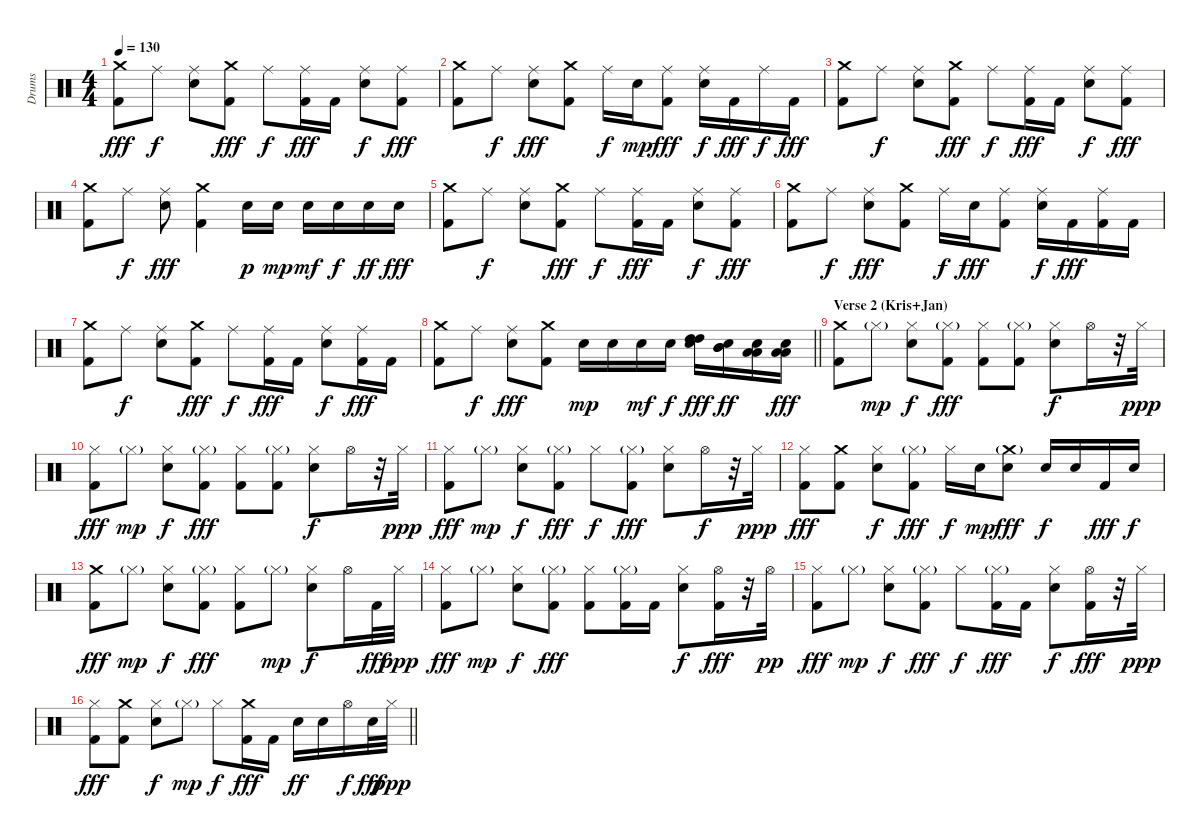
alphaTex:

\track ("Drums" "Drums") {instrument percussion}
\staff {score}
\articulation defaults
\ts (4 4)
\tempo 130
\clef neutral
\ks c
("Crash medium (hit)" "Kick (hit) 2").8{dy fff} "Ride (middle)".8{dy f} ("Ride (middle)" "Snare (hit) 2").8 ("Crash medium (hit)" "Kick (hit) 2").8{dy fff} "Ride (middle)".8{dy f} ("Ride (middle)" "Kick (hit) 2").16{dy fff} "Kick (hit) 2".16 ("Ride (middle)" "Snare (hit) 2").8{dy f} ("Ride (middle)" "Kick (hit) 2").8{dy fff} |
("Crash medium (hit)" "Kick (hit) 2").8 "Ride (middle)".8{dy f} ("Ride (middle)" "Snare (hit) 2").8{dy fff} ("Crash medium (hit)" "Kick (hit) 2").8 "Ride (middle)".16{dy f} "Snare (hit) 2".16{dy mp} ("Ride (middle)" "Kick (hit) 2").8{dy fff} ("Ride (middle)" "Snare (hit) 2").16{dy f} "Kick (hit) 2".16{dy fff} "Ride (middle)".16{dy f} "Kick (hit) 2".16{dy fff} |
("Crash medium (hit)" "Kick (hit) 2").8 "Ride (middle)".8{dy f} ("Ride (middle)" "Snare (hit) 2").8 ("Crash medium (hit)" "Kick (hit) 2").8{dy fff} "Ride (middle)".8{dy f} ("Ride (middle)" "Kick (hit) 2").16{dy fff} "Kick (hit) 2".16 ("Ride (middle)" "Snare (hit) 2").8{dy f} ("Ride (middle)" "Kick (hit) 2").8{dy fff} |
("Crash medium (hit)" "Kick (hit) 2").8 "Ride (middle)".8{dy f} ("Ride (middle)" "Snare (hit) 2").8{dy fff} ("Crash medium (hit)" "Kick (hit) 2").4 "Snare (hit) 2".16{dy p} "Snare (hit) 2".16{dy mp} "Snare (hit) 2".16{dy mf} "Snare (hit) 2".16{dy f} "Snare (hit) 2".16{dy ff} "Snare (hit) 2".16{dy fff} |
("Crash medium (hit)" "Kick (hit) 2").8 "Ride (middle)".8{dy f} ("Ride (middle)" "Snare (hit) 2").8 ("Crash medium (hit)" "Kick (hit) 2").8{dy fff} "Ride (middle)".8{dy f} ("Ride (middle)" "Kick (hit) 2").16{dy fff} "Kick (hit) 2".16 ("Ride (middle)" "Snare (hit) 2").8{dy f} ("Ride (middle)" "Kick (hit) 2").8{dy fff} |
("Crash medium (hit)" "Kick (hit) 2").8 "Ride (middle)".8{dy f} ("Ride (middle)" "Snare (hit) 2").8{dy fff} ("Crash medium (hit)" "Kick (hit) 2").8 "Ride (middle)".16{dy f} "Snare (hit) 2".16{dy fff} ("Ride (middle)" "Kick (hit) 2").8 ("Ride (middle)" "Snare (hit) 2").16{dy f} "Kick (hit) 2".16{dy fff} ("Ride (middle)" "Kick (hit) 2").16 "Kick (hit) 2".16 |
("Crash medium (hit)" "Kick (hit) 2").8 "Ride (middle)".8{dy f} ("Ride (middle)" "Snare (hit) 2").8 ("Crash medium (hit)" "Kick (hit) 2").8{dy fff} "Ride (middle)".8{dy f} ("Ride (middle)" "Kick (hit) 2").16{dy fff} "Kick (hit) 2".16 ("Ride (middle)" "Snare (hit) 2").8{dy f} ("Ride (middle)" "Kick (hit) 2").16{dy fff} "Kick (hit) 2".16 |
\barLineRight lightlight
("Crash medium (hit)" "Kick (hit) 2").8 "Ride (middle)".8{dy f} ("Ride (middle)" "Snare (hit) 2").8{dy fff} ("Crash medium (hit)" "Kick (hit) 2").8 "Snare (hit) 2".16{dy mp} "Snare (hit) 2".16 "Snare (hit) 2".16{dy mf} "Snare (hit) 2".16{dy f} ("High Tom (hit)" "High Tom (hit)" "Snare (hit) 2").16{dy fff} ("Mid Tom (hit)" "Mid Tom (hit)" "Snare (hit) 2").16{dy ff} ("Low Tom (hit)" "Low Tom (hit)" "Snare (hit) 2").16 ("Low Tom (hit)" "Low Tom (hit)" "Snare (hit) 2").16{dy fff} |
\section ("" "Verse 2 (Kris+Jan)")
("Crash medium (hit)" "Kick (hit) 2").8 "Hi-Hat (closed)"{g}.8{dy mp} ("Hi-Hat (closed)" "Snare (hit) 2").8{dy f} ("Hi-Hat (closed)"{g} "Kick (hit) 2").8{dy fff} ("Hi-Hat (closed)" "Kick (hit) 2").8 ("Hi-Hat (closed)"{g} "Kick (hit) 2").8 ("Hi-Hat (closed)" "Snare (hit) 2").8{dy f} "Hi-Hat (open)".16 r.32 "Hi-Hat (closed)".32{dy ppp} |
("Hi-Hat (closed)" "Kick (hit) 2").8{dy fff} "Hi-Hat (closed)"{g}.8{dy mp} ("Hi-Hat (closed)" "Snare (hit) 2").8{dy f} ("Hi-Hat (closed)"{g} "Kick (hit) 2").8{dy fff} ("Hi-Hat (closed)" "Kick (hit) 2").8 ("Hi-Hat (closed)"{g} "Kick (hit) 2").8 ("Hi-Hat (closed)" "Snare (hit) 2").8{dy f} "Hi-Hat (open)".16 r.32 "Hi-Hat (closed)".32{dy ppp} |
("Hi-Hat (closed)" "Kick (hit) 2").8{dy fff} "Hi-Hat (closed)"{g}.8{dy mp} ("Hi-Hat (closed)" "Snare (hit) 2").8{dy f} ("Hi-Hat (closed)"{g} "Kick (hit) 2").8{dy fff} "Hi-Hat (closed)".8{dy f} ("Hi-Hat (closed)"{g} "Kick (hit) 2").8{dy fff} ("Hi-Hat (closed)" "Snare (hit) 2").8 "Hi-Hat (open)".16{dy f} r.32 "Hi-Hat (closed)".32{dy ppp} |
("Hi-Hat (closed)" "Kick (hit) 2").8{dy fff} ("Crash medium (hit)" "Kick (hit) 2").8 ("Hi-Hat (closed)" "Snare (hit) 2").8{dy f} ("Hi-Hat (closed)"{g} "Kick (hit) 2").8{dy fff} "Hi-Hat (closed)".16{dy f} "Snare (hit) 2".16{dy mp} ("Crash medium (hit)"{g} "Snare (hit) 2").8{dy fff} "Snare (hit) 2".16{dy f} "Snare (hit) 2".16 "Kick (hit) 2".16{dy fff} "Snare (hit) 2".16{dy f} |
("Crash medium (hit)" "Kick (hit) 2").8{dy fff} "Hi-Hat (closed)"{g}.8{dy mp} ("Hi-Hat (closed)" "Snare (hit) 2").8{dy f} ("Hi-Hat (closed)"{g} "Kick (hit) 2").8{dy fff} ("Hi-Hat (closed)" "Kick (hit) 2").8 "Hi-Hat (closed)"{g}.8{dy mp} ("Hi-Hat (closed)" "Snare (hit) 2").8{dy f} "Hi-Hat (open)".16 "Kick (hit) 2".32{dy fff} "Hi-Hat (closed)".32{dy ppp} |
("Hi-Hat (closed)" "Kick (hit) 2").8{dy fff} "Hi-Hat (closed)"{g}.8{dy mp} ("Hi-Hat (closed)" "Snare (hit) 2").8{dy f} ("Hi-Hat (closed)"{g} "Kick (hit) 2").8{dy fff} ("Hi-Hat (closed)" "Kick (hit) 2").8 ("Hi-Hat (closed)"{g} "Kick (hit) 2").16 "Kick (hit) 2".16 ("Hi-Hat (closed)" "Snare (hit) 2").8{dy f} ("Hi-Hat (open)" "Kick (hit) 2").16{dy fff} r.32 "Hi-Hat (open)".32{dy pp} |
("Hi-Hat (closed)" "Kick (hit) 2").8{dy fff} "Hi-Hat (closed)"{g}.8{dy mp} ("Hi-Hat (closed)" "Snare (hit) 2").8{dy f} ("Hi-Hat (closed)"{g} "Kick (hit) 2").8{dy fff} "Hi-Hat (closed)".8{dy f} ("Hi-Hat (closed)"{g} "Kick (hit) 2").16{dy fff} "Kick (hit) 2".16 ("Hi-Hat (closed)" "Snare (hit) 2").8{dy f} ("Hi-Hat (open)" "Kick (hit) 2").16{dy fff} r.32 "Hi-Hat (closed)".32{dy ppp} |
\barLineRight lightlight
("Hi-Hat (closed)" "Kick (hit) 2").8{dy fff} ("Crash medium (hit)" "Kick (hit) 2").8 ("Hi-Hat (closed)" "Snare (hit) 2").8{dy f} "Hi-Hat (closed)"{g}.8{dy mp} "Hi-Hat (closed)".8{dy f} ("Crash medium (hit)" "Kick (hit) 2").16{dy fff} "Kick (hit) 2".16 "Snare (hit) 2".16{dy ff} "Snare (hit) 2".16 "Hi-Hat (open)".16{dy f} "Snare (hit) 2".32{dy fff} "Hi-Hat (closed)".32{dy ppp}
